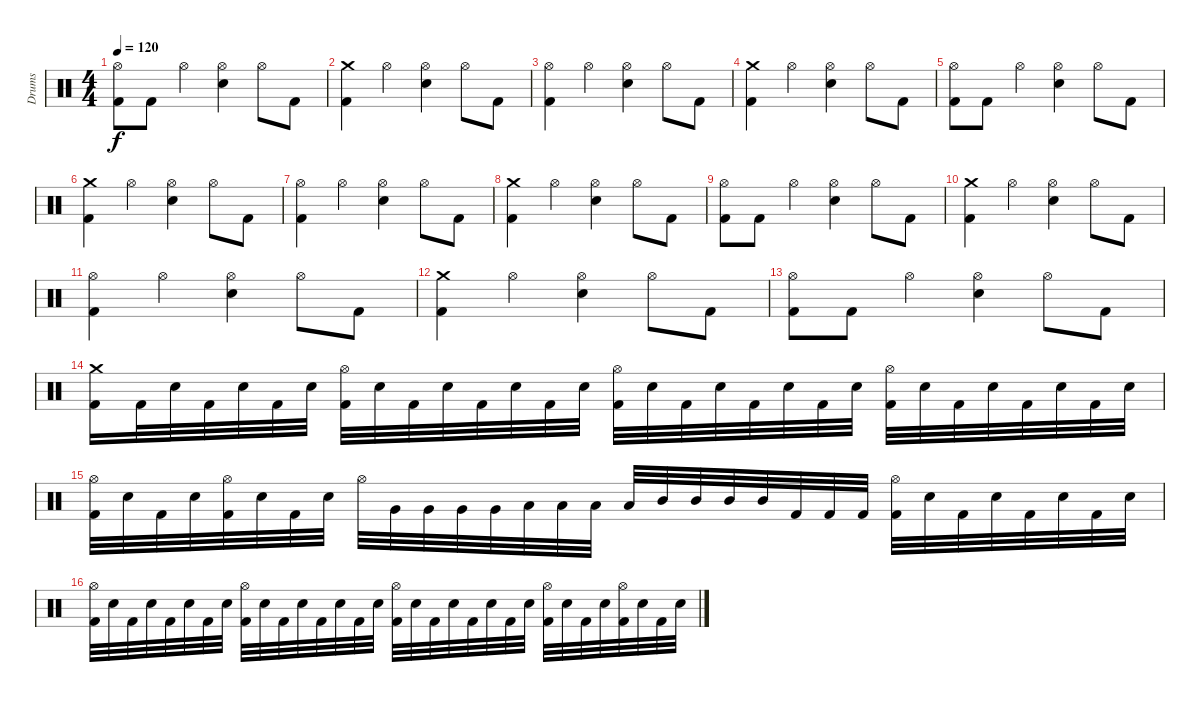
\track ("Drums" "Drums") {instrument percussion}
\staff {score}
\articulation defaults
\ts (4 4)
\tempo 120
\clef neutral
\ks c
("Hi-Hat (open)" "Kick (hit) 2").8{dy f} "Kick (hit) 2".8 "Hi-Hat (open)".4 ("Hi-Hat (open)" "Electric Snare (hit)").4 "Hi-Hat (open)".8 "Kick (hit) 2".8 |
("Crash medium (hit)" "Kick (hit) 2").4 "Hi-Hat (open)".4 ("Hi-Hat (open)" "Electric Snare (hit)").4 "Hi-Hat (open)".8 "Kick (hit) 2".8 |
("Hi-Hat (open)" "Kick (hit) 2").4 "Hi-Hat (open)".4 ("Hi-Hat (open)" "Electric Snare (hit)").4 "Hi-Hat (open)".8 "Kick (hit) 2".8 |
("Crash medium (hit)" "Kick (hit) 2").4 "Hi-Hat (open)".4 ("Hi-Hat (open)" "Electric Snare (hit)").4 "Hi-Hat (open)".8 "Kick (hit) 2".8 |
("Hi-Hat (open)" "Kick (hit) 2").8 "Kick (hit) 2".8 "Hi-Hat (open)".4 ("Hi-Hat (open)" "Electric Snare (hit)").4 "Hi-Hat (open)".8 "Kick (hit) 2".8 |
("Crash medium (hit)" "Kick (hit) 2").4 "Hi-Hat (open)".4 ("Hi-Hat (open)" "Electric Snare (hit)").4 "Hi-Hat (open)".8 "Kick (hit) 2".8 |
("Hi-Hat (open)" "Kick (hit) 2").4 "Hi-Hat (open)".4 ("Hi-Hat (open)" "Electric Snare (hit)").4 "Hi-Hat (open)".8 "Kick (hit) 2".8 |
("Crash medium (hit)" "Kick (hit) 2").4 "Hi-Hat (open)".4 ("Hi-Hat (open)" "Electric Snare (hit)").4 "Hi-Hat (open)".8 "Kick (hit) 2".8 |
("Hi-Hat (open)" "Kick (hit) 2").8 "Kick (hit) 2".8 "Hi-Hat (open)".4 ("Hi-Hat (open)" "Electric Snare (hit)").4 "Hi-Hat (open)".8 "Kick (hit) 2".8 |
("Crash medium (hit)" "Kick (hit) 2").4 "Hi-Hat (open)".4 ("Hi-Hat (open)" "Electric Snare (hit)").4 "Hi-Hat (open)".8 "Kick (hit) 2".8 |
("Hi-Hat (open)" "Kick (hit) 2").4 "Hi-Hat (open)".4 ("Hi-Hat (open)" "Electric Snare (hit)").4 "Hi-Hat (open)".8 "Kick (hit) 2".8 |
("Crash medium (hit)" "Kick (hit) 2").4 "Hi-Hat (open)".4 ("Hi-Hat (open)" "Electric Snare (hit)").4 "Hi-Hat (open)".8 "Kick (hit) 2".8 |
("Hi-Hat (open)" "Kick (hit) 2").8 "Kick (hit) 2".8 "Hi-Hat (open)".4 ("Hi-Hat (open)" "Electric Snare (hit)").4 "Hi-Hat (open)".8 "Kick (hit) 2".8 |
("Kick (hit) 2" "Crash medium (hit)").16 "Kick (hit) 2".32 "Electric Snare (hit)".32 "Kick (hit) 2".32 "Electric Snare (hit)".32 "Kick (hit) 2".32 "Electric Snare (hit)".32 ("Kick (hit) 2" "Hi-Hat (open)").32 "Electric Snare (hit)".32 "Kick (hit) 2".32 "Electric Snare (hit)".32 "Kick (hit) 2".32 "Electric Snare (hit)".32 "Kick (hit) 2".32 "Electric Snare (hit)".32 ("Kick (hit) 2" "Hi-Hat (open)").32 "Electric Snare (hit)".32 "Kick (hit) 2".32 "Electric Snare (hit)".32 "Kick (hit) 2".32 "Electric Snare (hit)".32 "Kick (hit) 2".32 "Electric Snare (hit)".32 ("Kick (hit) 2" "Hi-Hat (open)").32 "Electric Snare (hit)".32 "Kick (hit) 2".32 "Electric Snare (hit)".32 "Kick (hit) 2".32 "Electric Snare (hit)".32 "Kick (hit) 2".32 "Electric Snare (hit)".32 |
("Kick (hit) 2" "Hi-Hat (open)").32 "Electric Snare (hit)".32 "Kick (hit) 2".32 "Electric Snare (hit)".32 ("Kick (hit) 2" "Hi-Hat (open)").32 "Electric Snare (hit)".32 "Kick (hit) 2".32 "Electric Snare (hit)".32 "Hi-Hat (open)".32 "Very Low Tom (hit)".32 "Very Low Tom (hit)".32 "Very Low Tom (hit)".32 "Very Low Tom (hit)".32 "Low Tom (hit)".32 "Low Tom (hit)".32 "Low Tom (hit)".32 "Low Tom (hit)".32 "Mid Tom (hit)".32 "Mid Tom (hit)".32 "Mid Tom (hit)".32 "Mid Tom (hit)".32 "Kick (hit) 2".32 "Kick (hit) 2".32 "Kick (hit) 2".32 ("Kick (hit) 2" "Hi-Hat (open)").32 "Electric Snare (hit)".32 "Kick (hit) 2".32 "Electric Snare (hit)".32 "Kick (hit) 2".32 "Electric Snare (hit)".32 "Kick (hit) 2".32 "Electric Snare (hit)".32 |
("Kick (hit) 2" "Hi-Hat (open)").32 "Electric Snare (hit)".32 "Kick (hit) 2".32 "Electric Snare (hit)".32 "Kick (hit) 2".32 "Electric Snare (hit)".32 "Kick (hit) 2".32 "Electric Snare (hit)".32 ("Kick (hit) 2" "Hi-Hat (open)").32 "Electric Snare (hit)".32 "Kick (hit) 2".32 "Electric Snare (hit)".32 "Kick (hit) 2".32 "Electric Snare (hit)".32 "Kick (hit) 2".32 "Electric Snare (hit)".32 ("Kick (hit) 2" "Hi-Hat (open)").32 "Electric Snare (hit)".32 "Kick (hit) 2".32 "Electric Snare (hit)".32 "Kick (hit) 2".32 "Electric Snare (hit)".32 "Kick (hit) 2".32 "Electric Snare (hit)".32 ("Kick (hit) 2" "Hi-Hat (open)").32 "Electric Snare (hit)".32 "Kick (hit) 2".32 "Electric Snare (hit)".32 ("Kick (hit) 2" "Hi-Hat (open)").32 "Electric Snare (hit)".32 "Kick (hit) 2".32 "Electric Snare (hit)".32
